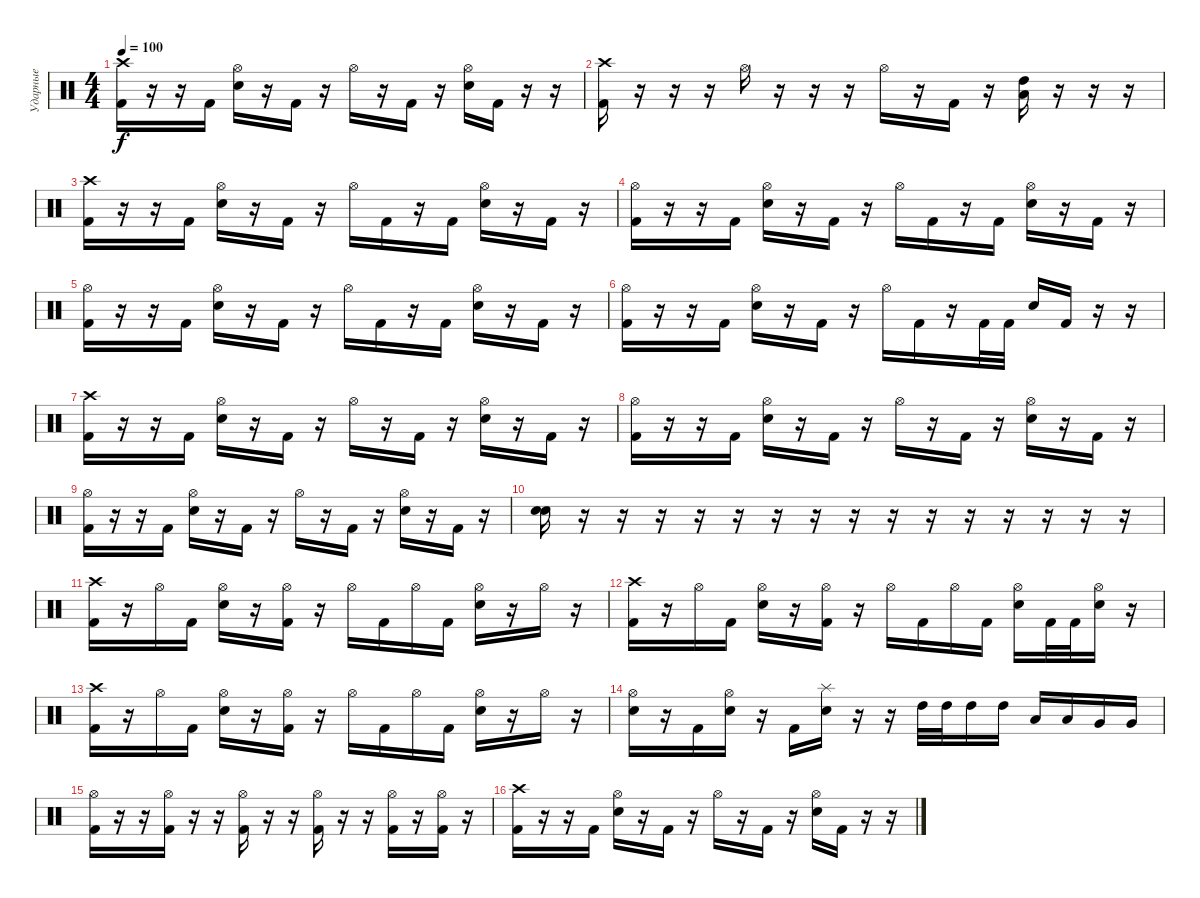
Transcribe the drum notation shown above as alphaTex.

\track ("Ударные" "Ударные") {instrument percussion}
\staff {score}
\articulation defaults
\ts (4 4)
\tempo 100
\clef neutral
\ks c
("Crash high (hit)" "Kick (hit) 2").16{dy f} r.16 r.16 "Kick (hit) 2".16 ("Hi-Hat (open)" "Electric Snare (hit)").16 r.16 "Kick (hit) 2".16 r.16 "Hi-Hat (open)".16 r.16 "Kick (hit) 2".16 r.16 ("Hi-Hat (open)" "Electric Snare (hit)").16 "Kick (hit) 2".16 r.16 r.16 |
("Crash high (hit)" "Kick (hit) 2").16 r.16 r.16 r.16 "Hi-Hat (open)".16 r.16 r.16 r.16 "Hi-Hat (open)".16 r.16 "Kick (hit) 2".16 r.16 ("Low Tom (hit)" "High Tom (hit)").16 r.16 r.16 r.16 |
("Crash high (hit)" "Kick (hit) 2").16 r.16 r.16 "Kick (hit) 2".16 ("Hi-Hat (open)" "Electric Snare (hit)").16 r.16 "Kick (hit) 2".16 r.16 "Hi-Hat (open)".16 "Kick (hit) 2".16 r.16 "Kick (hit) 2".16 ("Hi-Hat (open)" "Electric Snare (hit)").16 r.16 "Kick (hit) 2".16 r.16 |
("Hi-Hat (open)" "Kick (hit) 2").16 r.16 r.16 "Kick (hit) 2".16 ("Hi-Hat (open)" "Electric Snare (hit)").16 r.16 "Kick (hit) 2".16 r.16 "Hi-Hat (open)".16 "Kick (hit) 2".16 r.16 "Kick (hit) 2".16 ("Hi-Hat (open)" "Electric Snare (hit)").16 r.16 "Kick (hit) 2".16 r.16 |
("Hi-Hat (open)" "Kick (hit) 2").16 r.16 r.16 "Kick (hit) 2".16 ("Hi-Hat (open)" "Electric Snare (hit)").16 r.16 "Kick (hit) 2".16 r.16 "Hi-Hat (open)".16 "Kick (hit) 2".16 r.16 "Kick (hit) 2".16 ("Hi-Hat (open)" "Electric Snare (hit)").16 r.16 "Kick (hit) 2".16 r.16 |
("Hi-Hat (open)" "Kick (hit) 2").16 r.16 r.16 "Kick (hit) 2".16 ("Hi-Hat (open)" "Electric Snare (hit)").16 r.16 "Kick (hit) 2".16 r.16 "Hi-Hat (open)".16 "Kick (hit) 2".16 r.16 "Kick (hit) 2".32 "Kick (hit) 2".32 "Electric Snare (hit)".16 "Kick (hit) 2".16 r.16 r.16 |
("Crash high (hit)" "Kick (hit) 2").16 r.16 r.16 "Kick (hit) 2".16 ("Hi-Hat (open)" "Electric Snare (hit)").16 r.16 "Kick (hit) 2".16 r.16 "Hi-Hat (open)".16 r.16 "Kick (hit) 2".16 r.16 ("Hi-Hat (open)" "Electric Snare (hit)").16 r.16 "Kick (hit) 2".16 r.16 |
("Hi-Hat (open)" "Kick (hit) 2").16 r.16 r.16 "Kick (hit) 2".16 ("Hi-Hat (open)" "Electric Snare (hit)").16 r.16 "Kick (hit) 2".16 r.16 "Hi-Hat (open)".16 r.16 "Kick (hit) 2".16 r.16 ("Hi-Hat (open)" "Electric Snare (hit)").16 r.16 "Kick (hit) 2".16 r.16 |
("Hi-Hat (open)" "Kick (hit) 2").16 r.16 r.16 "Kick (hit) 2".16 ("Hi-Hat (open)" "Electric Snare (hit)").16 r.16 "Kick (hit) 2".16 r.16 "Hi-Hat (open)".16 r.16 "Kick (hit) 2".16 r.16 ("Hi-Hat (open)" "Electric Snare (hit)").16 r.16 "Kick (hit) 2".16 r.16 |
("Electric Snare (hit)" "Electric Snare (hit)").16 r.16 r.16 r.16 r.16 r.16 r.16 r.16 r.16 r.16 r.16 r.16 r.16 r.16 r.16 r.16 |
("Crash high (hit)" "Kick (hit) 2").16 r.16 "Hi-Hat (open)".16 "Kick (hit) 2".16 ("Hi-Hat (open)" "Electric Snare (hit)").16 r.16 ("Hi-Hat (open)" "Kick (hit) 2").16 r.16 "Hi-Hat (open)".16 "Kick (hit) 2".16 "Hi-Hat (open)".16 "Kick (hit) 2".16 ("Hi-Hat (open)" "Electric Snare (hit)").16 r.16 "Hi-Hat (open)".16 r.16 |
("Crash high (hit)" "Kick (hit) 2").16 r.16 "Hi-Hat (open)".16 "Kick (hit) 2".16 ("Hi-Hat (open)" "Electric Snare (hit)").16 r.16 ("Hi-Hat (open)" "Kick (hit) 2").16 r.16 "Hi-Hat (open)".16 "Kick (hit) 2".16 "Hi-Hat (open)".16 "Kick (hit) 2".16 ("Hi-Hat (open)" "Electric Snare (hit)").16 "Kick (hit) 2".32 "Kick (hit) 2".32 ("Hi-Hat (open)" "Electric Snare (hit)").16 r.16 |
("Crash high (hit)" "Kick (hit) 2").16 r.16 "Hi-Hat (open)".16 "Kick (hit) 2".16 ("Hi-Hat (open)" "Electric Snare (hit)").16 r.16 ("Hi-Hat (open)" "Kick (hit) 2").16 r.16 "Hi-Hat (open)".16 "Kick (hit) 2".16 "Hi-Hat (open)".16 "Kick (hit) 2".16 ("Hi-Hat (open)" "Electric Snare (hit)").16 r.16 "Hi-Hat (open)".16 r.16 |
("Hi-Hat (open)" "Electric Snare (hit)").16 r.16 "Kick (hit) 2".16 ("Hi-Hat (open)" "Electric Snare (hit)").16 r.16 "Kick (hit) 2".16 ("Splash (hit)" "Electric Snare (hit)").16 r.16 r.16 "High Tom (hit)".32 "High Tom (hit)".32 "High Tom (hit)".16 "High Tom (hit)".16 "Low Tom (hit)".16 "Low Tom (hit)".16 "Very Low Tom (hit)".16 "Very Low Tom (hit)".16 |
("Hi-Hat (open)" "Kick (hit) 2").16 r.16 r.16 ("Hi-Hat (open)" "Kick (hit) 2").16 r.16 r.16 ("Hi-Hat (open)" "Kick (hit) 2").16 r.16 r.16 ("Hi-Hat (open)" "Kick (hit) 2").16 r.16 r.16 ("Hi-Hat (open)" "Kick (hit) 2").16 r.16 ("Hi-Hat (open)" "Kick (hit) 2").16 r.16 |
("Crash high (hit)" "Kick (hit) 2").16 r.16 r.16 "Kick (hit) 2".16 ("Hi-Hat (open)" "Electric Snare (hit)").16 r.16 "Kick (hit) 2".16 r.16 "Hi-Hat (open)".16 r.16 "Kick (hit) 2".16 r.16 ("Hi-Hat (open)" "Electric Snare (hit)").16 "Kick (hit) 2".16 r.16 r.16
